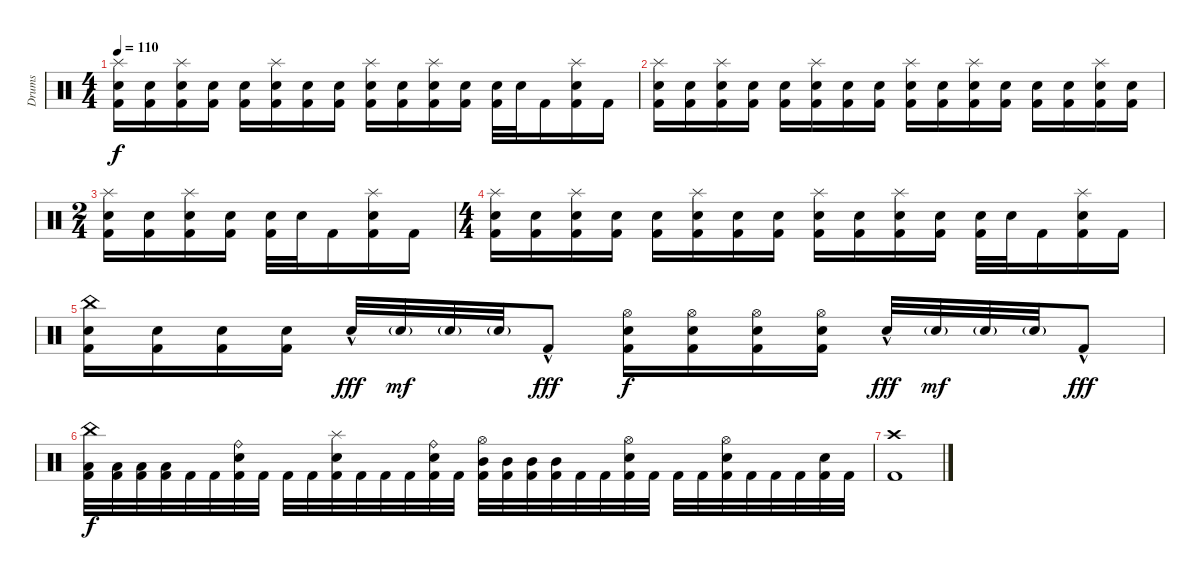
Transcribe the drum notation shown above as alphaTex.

\track ("Drums " "Drums ") {instrument percussion}
\staff {score}
\articulation defaults
\ts (4 4)
\tempo 110
\clef neutral
\ks c
("Splash (hit)" "Electric Snare (hit)" "Kick (hit) 2").16{dy f} ("Electric Snare (hit)" "Kick (hit) 2").16 ("Splash (hit)" "Electric Snare (hit)" "Kick (hit) 2").16 ("Electric Snare (hit)" "Kick (hit) 2").16 ("Electric Snare (hit)" "Kick (hit) 2").16 ("Splash (hit)" "Electric Snare (hit)" "Kick (hit) 2").16 ("Electric Snare (hit)" "Kick (hit) 2").16 ("Electric Snare (hit)" "Kick (hit) 2").16 ("Splash (hit)" "Electric Snare (hit)" "Kick (hit) 2").16 ("Electric Snare (hit)" "Kick (hit) 2").16 ("Splash (hit)" "Electric Snare (hit)" "Kick (hit) 2").16 ("Electric Snare (hit)" "Kick (hit) 2").16 ("Electric Snare (hit)" "Kick (hit) 2").32 "Electric Snare (hit)".32 "Kick (hit) 2".16 ("Splash (hit)" "Electric Snare (hit)" "Kick (hit) 2").16 "Kick (hit) 2".16 |
("Splash (hit)" "Electric Snare (hit)" "Kick (hit) 2").16 ("Electric Snare (hit)" "Kick (hit) 2").16 ("Splash (hit)" "Electric Snare (hit)" "Kick (hit) 2").16 ("Electric Snare (hit)" "Kick (hit) 2").16 ("Electric Snare (hit)" "Kick (hit) 2").16 ("Splash (hit)" "Electric Snare (hit)" "Kick (hit) 2").16 ("Electric Snare (hit)" "Kick (hit) 2").16 ("Electric Snare (hit)" "Kick (hit) 2").16 ("Splash (hit)" "Electric Snare (hit)" "Kick (hit) 2").16 ("Electric Snare (hit)" "Kick (hit) 2").16 ("Splash (hit)" "Electric Snare (hit)" "Kick (hit) 2").16 ("Electric Snare (hit)" "Kick (hit) 2").16 ("Electric Snare (hit)" "Kick (hit) 2").16 ("Electric Snare (hit)" "Kick (hit) 2").16 ("Splash (hit)" "Electric Snare (hit)" "Kick (hit) 2").16 ("Electric Snare (hit)" "Kick (hit) 2").16 |
\ts (2 4)
("Splash (hit)" "Electric Snare (hit)" "Kick (hit) 2").16 ("Electric Snare (hit)" "Kick (hit) 2").16 ("Splash (hit)" "Electric Snare (hit)" "Kick (hit) 2").16 ("Electric Snare (hit)" "Kick (hit) 2").16 ("Electric Snare (hit)" "Kick (hit) 2").32 "Electric Snare (hit)".32 "Kick (hit) 2".16 ("Splash (hit)" "Electric Snare (hit)" "Kick (hit) 2").16 "Kick (hit) 2".16 |
\ts (4 4)
("Splash (hit)" "Electric Snare (hit)" "Kick (hit) 2").16 ("Electric Snare (hit)" "Kick (hit) 2").16 ("Splash (hit)" "Electric Snare (hit)" "Kick (hit) 2").16 ("Electric Snare (hit)" "Kick (hit) 2").16 ("Electric Snare (hit)" "Kick (hit) 2").16 ("Splash (hit)" "Electric Snare (hit)" "Kick (hit) 2").16 ("Electric Snare (hit)" "Kick (hit) 2").16 ("Electric Snare (hit)" "Kick (hit) 2").16 ("Splash (hit)" "Electric Snare (hit)" "Kick (hit) 2").16 ("Electric Snare (hit)" "Kick (hit) 2").16 ("Splash (hit)" "Electric Snare (hit)" "Kick (hit) 2").16 ("Electric Snare (hit)" "Kick (hit) 2").16 ("Electric Snare (hit)" "Kick (hit) 2").32 "Electric Snare (hit)".32 "Kick (hit) 2".16 ("Splash (hit)" "Electric Snare (hit)" "Kick (hit) 2").16 "Kick (hit) 2".16 |
("China (hit)" "Electric Snare (hit)" "Kick (hit) 2").16 ("Electric Snare (hit)" "Kick (hit) 2").16 ("Electric Snare (hit)" "Kick (hit) 2").16 ("Electric Snare (hit)" "Kick (hit) 2").16 "Electric Snare (hit)"{hac}.32{dy fff} "Electric Snare (hit)"{g}.32{dy mf} "Electric Snare (hit)"{g}.32 "Electric Snare (hit)"{g}.32 "Kick (hit) 2"{hac}.8{dy fff} ("Hi-Hat (open)" "Electric Snare (hit)" "Kick (hit) 2").16{dy f} ("Hi-Hat (open)" "Electric Snare (hit)" "Kick (hit) 2").16 ("Hi-Hat (open)" "Electric Snare (hit)" "Kick (hit) 2").16 ("Hi-Hat (open)" "Electric Snare (hit)" "Kick (hit) 2").16 "Electric Snare (hit)"{hac}.32{dy fff} "Electric Snare (hit)"{g}.32{dy mf} "Electric Snare (hit)"{g}.32 "Electric Snare (hit)"{g}.32 "Kick (hit) 2"{hac}.8{dy fff} |
("China (hit)" "Low Tom (hit)" "Kick (hit) 2").32{dy f} ("Low Tom (hit)" "Kick (hit) 2").32 ("Low Tom (hit)" "Kick (hit) 2").32 ("Low Tom (hit)" "Kick (hit) 2").32 "Kick (hit) 2".32 "Kick (hit) 2".32 ("Ride (bell)" "Electric Snare (hit)" "Kick (hit) 2").32 "Kick (hit) 2".32 "Kick (hit) 2".32 "Kick (hit) 2".32 ("Splash (hit)" "Electric Snare (hit)" "Kick (hit) 2").32 "Kick (hit) 2".32 "Kick (hit) 2".32 "Kick (hit) 2".32 ("Ride (bell)" "Electric Snare (hit)" "Kick (hit) 2").32 "Kick (hit) 2".32 ("Hi-Hat (open)" "Mid Tom (hit)" "Kick (hit) 2").32 ("Mid Tom (hit)" "Kick (hit) 2").32 ("Mid Tom (hit)" "Kick (hit) 2").32 ("Mid Tom (hit)" "Kick (hit) 2").32 "Kick (hit) 2".32 "Kick (hit) 2".32 ("Hi-Hat (open)" "Electric Snare (hit)" "Kick (hit) 2").32 "Kick (hit) 2".32 "Kick (hit) 2".32 "Kick (hit) 2".32 ("Hi-Hat (open)" "Electric Snare (hit)" "Kick (hit) 2").32 "Kick (hit) 2".32 "Kick (hit) 2".32 "Kick (hit) 2".32 ("Electric Snare (hit)" "Kick (hit) 2").32 "Kick (hit) 2".32 |
("Crash high (hit)" "Kick (hit) 2").1
